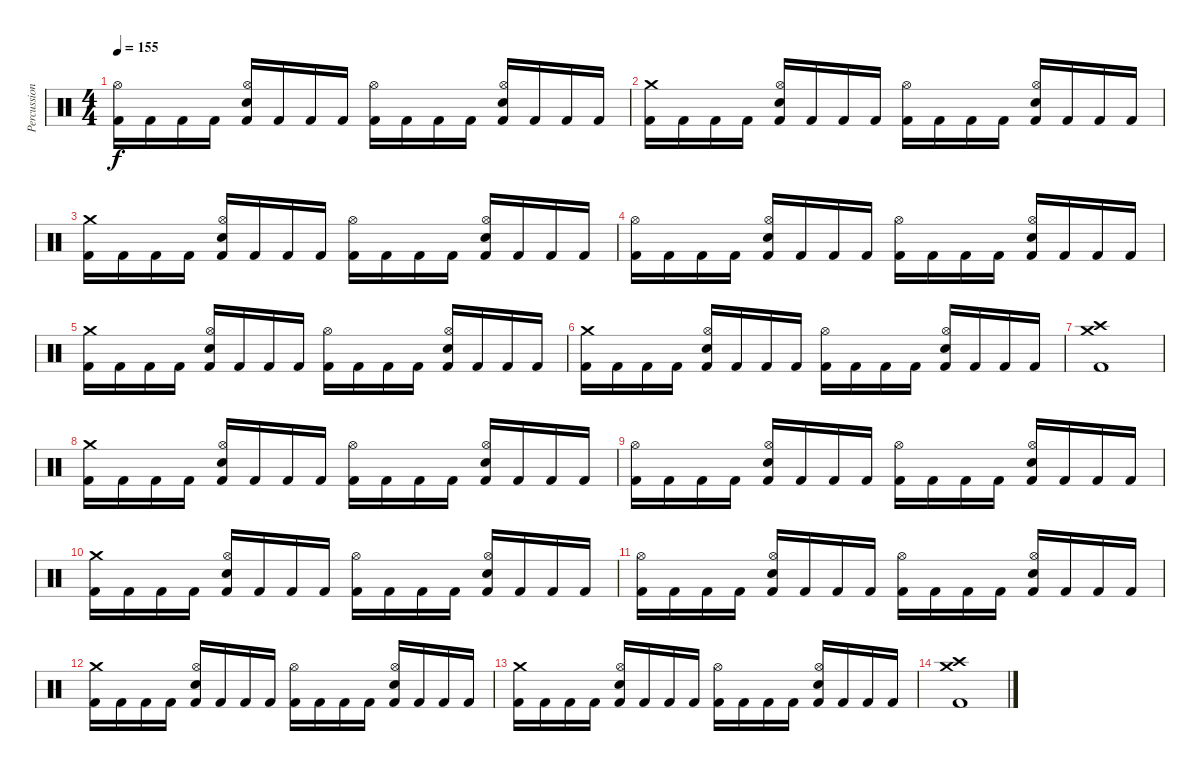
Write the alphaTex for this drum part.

\track ("Percussion" "Percussion") {instrument percussion}
\staff {score}
\articulation defaults
\ts (4 4)
\tempo 155
\clef neutral
\ks c
("Kick (hit) 2" "Hi-Hat (open)").16{dy f} "Kick (hit) 2".16 "Kick (hit) 2".16 "Kick (hit) 2".16 ("Kick (hit) 2" "Snare (hit) 2" "Hi-Hat (open)").16 "Kick (hit) 2".16 "Kick (hit) 2".16 "Kick (hit) 2".16 ("Kick (hit) 2" "Hi-Hat (open)").16 "Kick (hit) 2".16 "Kick (hit) 2".16 "Kick (hit) 2".16 ("Kick (hit) 2" "Snare (hit) 2" "Hi-Hat (open)").16 "Kick (hit) 2".16 "Kick (hit) 2".16 "Kick (hit) 2".16 |
("Kick (hit) 2" "Crash medium (hit)").16 "Kick (hit) 2".16 "Kick (hit) 2".16 "Kick (hit) 2".16 ("Kick (hit) 2" "Snare (hit) 2" "Hi-Hat (open)").16 "Kick (hit) 2".16 "Kick (hit) 2".16 "Kick (hit) 2".16 ("Kick (hit) 2" "Hi-Hat (open)").16 "Kick (hit) 2".16 "Kick (hit) 2".16 "Kick (hit) 2".16 ("Kick (hit) 2" "Snare (hit) 2" "Hi-Hat (open)").16 "Kick (hit) 2".16 "Kick (hit) 2".16 "Kick (hit) 2".16 |
("Kick (hit) 2" "Crash medium (hit)").16 "Kick (hit) 2".16 "Kick (hit) 2".16 "Kick (hit) 2".16 ("Kick (hit) 2" "Snare (hit) 2" "Hi-Hat (open)").16 "Kick (hit) 2".16 "Kick (hit) 2".16 "Kick (hit) 2".16 ("Kick (hit) 2" "Hi-Hat (open)").16 "Kick (hit) 2".16 "Kick (hit) 2".16 "Kick (hit) 2".16 ("Kick (hit) 2" "Snare (hit) 2" "Hi-Hat (open)").16 "Kick (hit) 2".16 "Kick (hit) 2".16 "Kick (hit) 2".16 |
("Kick (hit) 2" "Hi-Hat (open)").16 "Kick (hit) 2".16 "Kick (hit) 2".16 "Kick (hit) 2".16 ("Kick (hit) 2" "Snare (hit) 2" "Hi-Hat (open)").16 "Kick (hit) 2".16 "Kick (hit) 2".16 "Kick (hit) 2".16 ("Kick (hit) 2" "Hi-Hat (open)").16 "Kick (hit) 2".16 "Kick (hit) 2".16 "Kick (hit) 2".16 ("Kick (hit) 2" "Snare (hit) 2" "Hi-Hat (open)").16 "Kick (hit) 2".16 "Kick (hit) 2".16 "Kick (hit) 2".16 |
("Kick (hit) 2" "Crash medium (hit)").16 "Kick (hit) 2".16 "Kick (hit) 2".16 "Kick (hit) 2".16 ("Kick (hit) 2" "Snare (hit) 2" "Hi-Hat (open)").16 "Kick (hit) 2".16 "Kick (hit) 2".16 "Kick (hit) 2".16 ("Kick (hit) 2" "Hi-Hat (open)").16 "Kick (hit) 2".16 "Kick (hit) 2".16 "Kick (hit) 2".16 ("Kick (hit) 2" "Snare (hit) 2" "Hi-Hat (open)").16 "Kick (hit) 2".16 "Kick (hit) 2".16 "Kick (hit) 2".16 |
("Kick (hit) 2" "Crash medium (hit)").16 "Kick (hit) 2".16 "Kick (hit) 2".16 "Kick (hit) 2".16 ("Kick (hit) 2" "Snare (hit) 2" "Hi-Hat (open)").16 "Kick (hit) 2".16 "Kick (hit) 2".16 "Kick (hit) 2".16 ("Kick (hit) 2" "Hi-Hat (open)").16 "Kick (hit) 2".16 "Kick (hit) 2".16 "Kick (hit) 2".16 ("Kick (hit) 2" "Snare (hit) 2" "Hi-Hat (open)").16 "Kick (hit) 2".16 "Kick (hit) 2".16 "Kick (hit) 2".16 |
("Kick (hit) 2" "Crash high (hit)" "Crash medium (hit)").1 |
("Kick (hit) 2" "Crash medium (hit)").16 "Kick (hit) 2".16 "Kick (hit) 2".16 "Kick (hit) 2".16 ("Kick (hit) 2" "Snare (hit) 2" "Hi-Hat (open)").16 "Kick (hit) 2".16 "Kick (hit) 2".16 "Kick (hit) 2".16 ("Kick (hit) 2" "Hi-Hat (open)").16 "Kick (hit) 2".16 "Kick (hit) 2".16 "Kick (hit) 2".16 ("Kick (hit) 2" "Snare (hit) 2" "Hi-Hat (open)").16 "Kick (hit) 2".16 "Kick (hit) 2".16 "Kick (hit) 2".16 |
("Kick (hit) 2" "Hi-Hat (open)").16 "Kick (hit) 2".16 "Kick (hit) 2".16 "Kick (hit) 2".16 ("Kick (hit) 2" "Snare (hit) 2" "Hi-Hat (open)").16 "Kick (hit) 2".16 "Kick (hit) 2".16 "Kick (hit) 2".16 ("Kick (hit) 2" "Hi-Hat (open)").16 "Kick (hit) 2".16 "Kick (hit) 2".16 "Kick (hit) 2".16 ("Kick (hit) 2" "Snare (hit) 2" "Hi-Hat (open)").16 "Kick (hit) 2".16 "Kick (hit) 2".16 "Kick (hit) 2".16 |
("Kick (hit) 2" "Crash medium (hit)").16 "Kick (hit) 2".16 "Kick (hit) 2".16 "Kick (hit) 2".16 ("Kick (hit) 2" "Snare (hit) 2" "Hi-Hat (open)").16 "Kick (hit) 2".16 "Kick (hit) 2".16 "Kick (hit) 2".16 ("Kick (hit) 2" "Hi-Hat (open)").16 "Kick (hit) 2".16 "Kick (hit) 2".16 "Kick (hit) 2".16 ("Kick (hit) 2" "Snare (hit) 2" "Hi-Hat (open)").16 "Kick (hit) 2".16 "Kick (hit) 2".16 "Kick (hit) 2".16 |
("Kick (hit) 2" "Hi-Hat (open)").16 "Kick (hit) 2".16 "Kick (hit) 2".16 "Kick (hit) 2".16 ("Kick (hit) 2" "Snare (hit) 2" "Hi-Hat (open)").16 "Kick (hit) 2".16 "Kick (hit) 2".16 "Kick (hit) 2".16 ("Kick (hit) 2" "Hi-Hat (open)").16 "Kick (hit) 2".16 "Kick (hit) 2".16 "Kick (hit) 2".16 ("Kick (hit) 2" "Snare (hit) 2" "Hi-Hat (open)").16 "Kick (hit) 2".16 "Kick (hit) 2".16 "Kick (hit) 2".16 |
("Kick (hit) 2" "Crash medium (hit)").16 "Kick (hit) 2".16 "Kick (hit) 2".16 "Kick (hit) 2".16 ("Kick (hit) 2" "Snare (hit) 2" "Hi-Hat (open)").16 "Kick (hit) 2".16 "Kick (hit) 2".16 "Kick (hit) 2".16 ("Kick (hit) 2" "Hi-Hat (open)").16 "Kick (hit) 2".16 "Kick (hit) 2".16 "Kick (hit) 2".16 ("Kick (hit) 2" "Snare (hit) 2" "Hi-Hat (open)").16 "Kick (hit) 2".16 "Kick (hit) 2".16 "Kick (hit) 2".16 |
("Kick (hit) 2" "Crash medium (hit)").16 "Kick (hit) 2".16 "Kick (hit) 2".16 "Kick (hit) 2".16 ("Kick (hit) 2" "Snare (hit) 2" "Hi-Hat (open)").16 "Kick (hit) 2".16 "Kick (hit) 2".16 "Kick (hit) 2".16 ("Kick (hit) 2" "Hi-Hat (open)").16 "Kick (hit) 2".16 "Kick (hit) 2".16 "Kick (hit) 2".16 ("Kick (hit) 2" "Snare (hit) 2" "Hi-Hat (open)").16 "Kick (hit) 2".16 "Kick (hit) 2".16 "Kick (hit) 2".16 |
("Kick (hit) 2" "Crash high (hit)" "Crash medium (hit)").1
